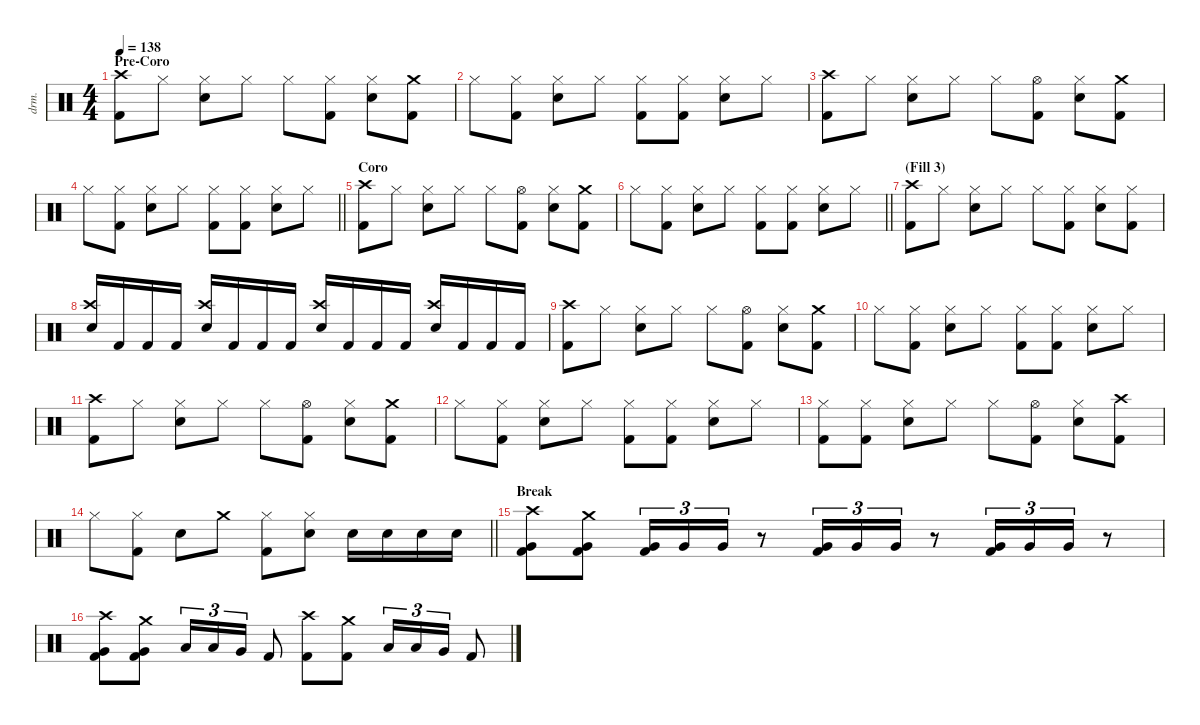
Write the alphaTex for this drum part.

\defaultSystemsLayout 4
\hideDynamics
\bracketExtendMode nobrackets
\otherSystemsTrackNameOrientation horizontal
\track ("Lee Kerslake" "drm.") {instrument percussion}
\staff {score}
\articulation defaults
\ts (4 4)
\section ("" "Pre-Coro")
\tempo 138
\clef neutral
\ks c
("Crash high (hit)" "Kick (hit) 2").8{dy f beam Down} "Hi-Hat (closed)".8{beam Down} ("Hi-Hat (closed)" "Snare (hit) 2").8{beam Down} "Hi-Hat (closed)".8{beam Down} "Hi-Hat (closed)".8{beam Down} ("Hi-Hat (closed)" "Kick (hit) 2").8{beam Down} ("Hi-Hat (closed)" "Snare (hit) 2").8{beam Down} ("Crash medium (hit)" "Kick (hit) 2").8{beam Down} |
"Hi-Hat (closed)".8{beam Down} ("Hi-Hat (closed)" "Kick (hit) 2").8{beam Down} ("Hi-Hat (closed)" "Snare (hit) 2").8{beam Down} "Hi-Hat (closed)".8{beam Down} ("Hi-Hat (closed)" "Kick (hit) 2").8{beam Down} ("Hi-Hat (closed)" "Kick (hit) 2").8{beam Down} ("Hi-Hat (closed)" "Snare (hit) 2").8{beam Down} "Hi-Hat (closed)".8{beam Down} |
("Crash high (hit)" "Kick (hit) 2").8{beam Down} "Hi-Hat (closed)".8{beam Down} ("Hi-Hat (closed)" "Snare (hit) 2").8{beam Down} "Hi-Hat (closed)".8{beam Down} "Hi-Hat (closed)".8{beam Down} ("Hi-Hat (open)" "Kick (hit) 2").8{beam Down} ("Hi-Hat (closed)" "Snare (hit) 2").8{beam Down} ("Crash medium (hit)" "Kick (hit) 2").8{beam Down} |
\barLineRight lightlight "Hi-Hat (closed)".8{beam Down}
("Hi-Hat (closed)" "Kick (hit) 2").8{beam Down} ("Hi-Hat (closed)" "Snare (hit) 2").8{beam Down} "Hi-Hat (closed)".8{beam Down} ("Hi-Hat (closed)" "Kick (hit) 2").8{beam Down} ("Hi-Hat (closed)" "Kick (hit) 2").8{beam Down} ("Hi-Hat (closed)" "Snare (hit) 2").8{beam Down} "Hi-Hat (closed)".8{beam Down} |
\section ("" "Coro")
("Crash high (hit)" "Kick (hit) 2").8{beam Down} "Hi-Hat (closed)".8{beam Down} ("Hi-Hat (closed)" "Snare (hit) 2").8{beam Down} "Hi-Hat (closed)".8{beam Down} "Hi-Hat (closed)".8{beam Down} ("Hi-Hat (open)" "Kick (hit) 2").8{beam Down} ("Hi-Hat (closed)" "Snare (hit) 2").8{beam Down} ("Crash medium (hit)" "Kick (hit) 2").8{beam Down} |
\barLineRight lightlight "Hi-Hat (closed)".8{beam Down}
("Hi-Hat (closed)" "Kick (hit) 2").8{beam Down} ("Hi-Hat (closed)" "Snare (hit) 2").8{beam Down} "Hi-Hat (closed)".8{beam Down} ("Hi-Hat (closed)" "Kick (hit) 2").8{beam Down} ("Hi-Hat (closed)" "Kick (hit) 2").8{beam Down} ("Hi-Hat (closed)" "Snare (hit) 2").8{beam Down} "Hi-Hat (closed)".8{beam Down} |
\section ("" "(Fill 3)")
("Crash high (hit)" "Kick (hit) 2").8{beam Down} "Hi-Hat (closed)".8{beam Down} ("Hi-Hat (closed)" "Snare (hit) 2").8{beam Down} "Hi-Hat (closed)".8{beam Down} "Hi-Hat (closed)".8{beam Down} ("Hi-Hat (closed)" "Kick (hit) 2").8{beam Down} ("Hi-Hat (closed)" "Snare (hit) 2").8{beam Down} ("Hi-Hat (closed)" "Kick (hit) 2").8{beam Down} |
("Snare (hit) 2" "Crash high (hit)").16{beam Up} "Kick (hit) 2".16{beam Up} "Kick (hit) 2".16{beam Up} "Kick (hit) 2".16{beam Up} ("Snare (hit) 2" "Crash high (hit)").16{beam Up} "Kick (hit) 2".16{beam Up} "Kick (hit) 2".16{beam Up} "Kick (hit) 2".16{beam Up} ("Snare (hit) 2" "Crash high (hit)").16{beam Up} "Kick (hit) 2".16{beam Up} "Kick (hit) 2".16{beam Up} "Kick (hit) 2".16{beam Up} ("Snare (hit) 2" "Crash high (hit)").16{beam Up} "Kick (hit) 2".16{beam Up} "Kick (hit) 2".16{beam Up} "Kick (hit) 2".16{beam Up} |
("Crash high (hit)" "Kick (hit) 2").8{beam Down} "Hi-Hat (closed)".8{beam Down} ("Hi-Hat (closed)" "Snare (hit) 2").8{beam Down} "Hi-Hat (closed)".8{beam Down} "Hi-Hat (closed)".8{beam Down} ("Hi-Hat (open)" "Kick (hit) 2").8{beam Down} ("Hi-Hat (closed)" "Snare (hit) 2").8{beam Down} ("Crash medium (hit)" "Kick (hit) 2").8{beam Down} |
"Hi-Hat (closed)".8{beam Down} ("Hi-Hat (closed)" "Kick (hit) 2").8{beam Down} ("Hi-Hat (closed)" "Snare (hit) 2").8{beam Down} "Hi-Hat (closed)".8{beam Down} ("Hi-Hat (closed)" "Kick (hit) 2").8{beam Down} ("Hi-Hat (closed)" "Kick (hit) 2").8{beam Down} ("Hi-Hat (closed)" "Snare (hit) 2").8{beam Down} "Hi-Hat (closed)".8{beam Down} |
("Crash high (hit)" "Kick (hit) 2").8{beam Down} "Hi-Hat (closed)".8{beam Down} ("Hi-Hat (closed)" "Snare (hit) 2").8{beam Down} "Hi-Hat (closed)".8{beam Down} "Hi-Hat (closed)".8{beam Down} ("Hi-Hat (open)" "Kick (hit) 2").8{beam Down} ("Hi-Hat (closed)" "Snare (hit) 2").8{beam Down} ("Crash medium (hit)" "Kick (hit) 2").8{beam Down} |
"Hi-Hat (closed)".8{beam Down} ("Hi-Hat (closed)" "Kick (hit) 2").8{beam Down} ("Hi-Hat (closed)" "Snare (hit) 2").8{beam Down} "Hi-Hat (closed)".8{beam Down} ("Hi-Hat (closed)" "Kick (hit) 2").8{beam Down} ("Hi-Hat (closed)" "Kick (hit) 2").8{beam Down} ("Hi-Hat (closed)" "Snare (hit) 2").8{beam Down} "Hi-Hat (closed)".8{beam Down} |
("Hi-Hat (closed)" "Kick (hit) 2").8{beam Down} ("Hi-Hat (closed)" "Kick (hit) 2").8{beam Down} ("Hi-Hat (closed)" "Snare (hit) 2").8{beam Down} "Hi-Hat (closed)".8{beam Down} "Hi-Hat (closed)".8{beam Down} ("Hi-Hat (open)" "Kick (hit) 2").8{beam Down} ("Hi-Hat (closed)" "Snare (hit) 2").8{beam Down} ("Crash high (hit)" "Kick (hit) 2").8{beam Down} |
\barLineRight lightlight "Hi-Hat (closed)".8{beam Down}
("Hi-Hat (closed)" "Kick (hit) 2").8{beam Down} "Snare (hit) 2".8{beam Down} "Crash medium (hit)".8{beam Down} ("Hi-Hat (closed)" "Kick (hit) 2").8{beam Down} ("Hi-Hat (closed)" "Snare (hit) 2").8{beam Down} "Snare (hit) 2".16{beam Down} "Snare (hit) 2".16{beam Down} "Snare (hit) 2".16{beam Down} "Snare (hit) 2".16{beam Down} |
\section ("" "Break")
("Very Low Tom (hit)" "Crash high (hit)" "Kick (hit) 2").8{beam Down} ("Very Low Tom (hit)" "Crash medium (hit)" "Kick (hit) 2").8{beam Down} ("Very Low Tom (hit)" "Kick (hit) 2").16{tu (3 2) beam Up} "Very Low Tom (hit)".16{tu (3 2) beam Up} "Very Low Tom (hit)".16{tu (3 2) beam Up} r.8{beam Up} ("Very Low Tom (hit)" "Kick (hit) 2").16{tu (3 2) beam Up} "Very Low Tom (hit)".16{tu (3 2) beam Up} "Very Low Tom (hit)".16{tu (3 2) beam Up} r.8{beam Up} ("Very Low Tom (hit)" "Kick (hit) 2").16{tu (3 2) beam Up} "Very Low Tom (hit)".16{tu (3 2) beam Up} "Very Low Tom (hit)".16{tu (3 2) beam Up} r.8{beam Up} |
("Very Low Tom (hit)" "Crash high (hit)" "Kick (hit) 2").8{beam Down} ("Very Low Tom (hit)" "Crash medium (hit)" "Kick (hit) 2").8{beam Down} "Low Tom (hit)".16{tu (3 2) beam Up} "Low Tom (hit)".16{tu (3 2) beam Up} "Very Low Tom (hit)".16{tu (3 2) beam Up} "Kick (hit) 2".8{beam Up} ("Crash high (hit)" "Kick (hit) 2").8{beam Down} ("Crash medium (hit)" "Kick (hit) 2").8{beam Down} "Low Tom (hit)".16{tu (3 2) beam Up} "Low Tom (hit)".16{tu (3 2) beam Up} "Very Low Tom (hit)".16{tu (3 2) beam Up} "Kick (hit) 2".8{beam Up}
